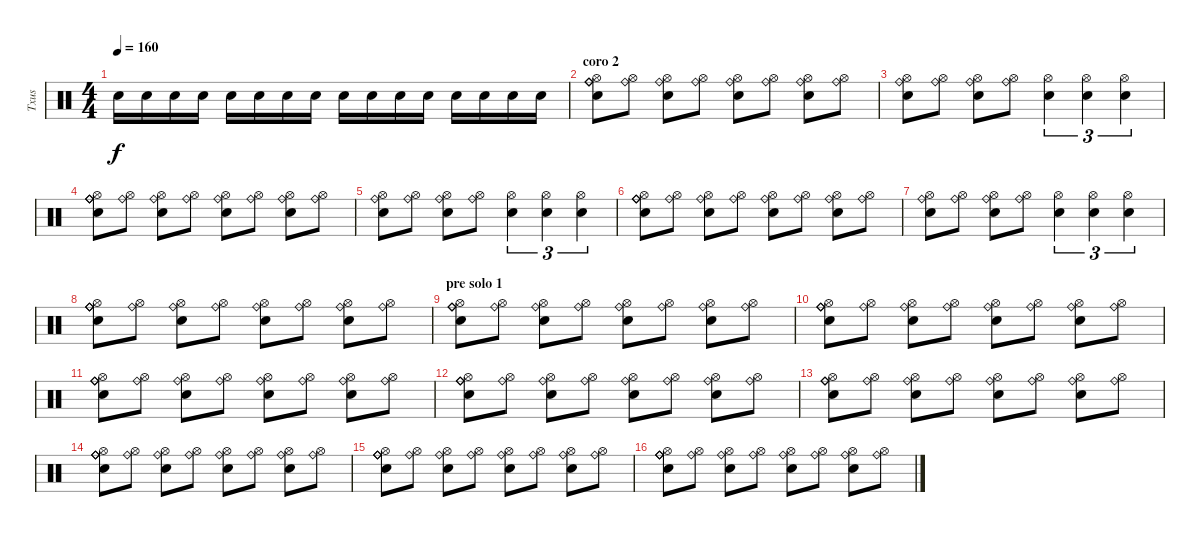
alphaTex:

\track ("Txus" "Txus") {instrument percussion}
\staff {score}
\articulation defaults
\ts (4 4)
\tempo 160
\clef neutral
\ks c "Snare (hit) 2".16{dy f} "Snare (hit) 2".16 "Snare (hit) 2".16 "Snare (hit) 2".16 "Snare (hit) 2".16 "Snare (hit) 2".16 "Snare (hit) 2".16 "Snare (hit) 2".16 "Snare (hit) 2".16 "Snare (hit) 2".16 "Snare (hit) 2".16 "Snare (hit) 2".16 "Snare (hit) 2".16 "Snare (hit) 2".16 "Snare (hit) 2".16 "Snare (hit) 2".16
|
\section ("" "coro 2")
("Snare (hit) 2" "Hi-Hat (open)" "Ride (bell)" "Ride (bell)" "Ride (bell)").8 ("Hi-Hat (open)" "Ride (bell)").8 ("Snare (hit) 2" "Hi-Hat (open)" "Ride (bell)").8 ("Hi-Hat (open)" "Ride (bell)").8 ("Snare (hit) 2" "Hi-Hat (open)" "Ride (bell)").8 ("Hi-Hat (open)" "Ride (bell)").8 ("Snare (hit) 2" "Hi-Hat (open)" "Ride (bell)").8 ("Hi-Hat (open)" "Ride (bell)").8 |
("Snare (hit) 2" "Ride (bell)" "Hi-Hat (open)").8 ("Ride (bell)" "Hi-Hat (open)").8 ("Snare (hit) 2" "Ride (bell)" "Hi-Hat (open)").8 ("Ride (bell)" "Hi-Hat (open)").8 ("Snare (hit) 2" "Hi-Hat (open)").4{tu (3 2)} ("Snare (hit) 2" "Hi-Hat (open)").4{tu (3 2)} ("Snare (hit) 2" "Hi-Hat (open)").4{tu (3 2)} |
("Snare (hit) 2" "Hi-Hat (open)" "Ride (bell)" "Ride (bell)" "Ride (bell)").8 ("Hi-Hat (open)" "Ride (bell)").8 ("Snare (hit) 2" "Hi-Hat (open)" "Ride (bell)").8 ("Hi-Hat (open)" "Ride (bell)").8 ("Snare (hit) 2" "Hi-Hat (open)" "Ride (bell)").8 ("Hi-Hat (open)" "Ride (bell)").8 ("Snare (hit) 2" "Hi-Hat (open)" "Ride (bell)").8 ("Hi-Hat (open)" "Ride (bell)").8 |
("Snare (hit) 2" "Ride (bell)" "Hi-Hat (open)").8 ("Ride (bell)" "Hi-Hat (open)").8 ("Snare (hit) 2" "Ride (bell)" "Hi-Hat (open)").8 ("Ride (bell)" "Hi-Hat (open)").8 ("Snare (hit) 2" "Hi-Hat (open)").4{tu (3 2)} ("Snare (hit) 2" "Hi-Hat (open)").4{tu (3 2)} ("Snare (hit) 2" "Hi-Hat (open)").4{tu (3 2)} |
("Snare (hit) 2" "Hi-Hat (open)" "Ride (bell)" "Ride (bell)" "Ride (bell)").8 ("Hi-Hat (open)" "Ride (bell)").8 ("Snare (hit) 2" "Hi-Hat (open)" "Ride (bell)").8 ("Hi-Hat (open)" "Ride (bell)").8 ("Snare (hit) 2" "Hi-Hat (open)" "Ride (bell)").8 ("Hi-Hat (open)" "Ride (bell)").8 ("Snare (hit) 2" "Hi-Hat (open)" "Ride (bell)").8 ("Hi-Hat (open)" "Ride (bell)").8 |
("Snare (hit) 2" "Ride (bell)" "Hi-Hat (open)").8 ("Ride (bell)" "Hi-Hat (open)").8 ("Snare (hit) 2" "Ride (bell)" "Hi-Hat (open)").8 ("Ride (bell)" "Hi-Hat (open)").8 ("Snare (hit) 2" "Hi-Hat (open)").4{tu (3 2)} ("Snare (hit) 2" "Hi-Hat (open)").4{tu (3 2)} ("Snare (hit) 2" "Hi-Hat (open)").4{tu (3 2)} |
("Snare (hit) 2" "Hi-Hat (open)" "Ride (bell)" "Ride (bell)" "Ride (bell)").8 ("Hi-Hat (open)" "Ride (bell)").8 ("Snare (hit) 2" "Hi-Hat (open)" "Ride (bell)").8 ("Hi-Hat (open)" "Ride (bell)").8 ("Snare (hit) 2" "Hi-Hat (open)" "Ride (bell)").8 ("Hi-Hat (open)" "Ride (bell)").8 ("Snare (hit) 2" "Hi-Hat (open)" "Ride (bell)").8 ("Hi-Hat (open)" "Ride (bell)").8 |
\section ("" "pre solo 1")
("Snare (hit) 2" "Hi-Hat (open)" "Ride (bell)" "Ride (bell)" "Ride (bell)").8 ("Hi-Hat (open)" "Ride (bell)").8 ("Snare (hit) 2" "Hi-Hat (open)" "Ride (bell)").8 ("Hi-Hat (open)" "Ride (bell)").8 ("Snare (hit) 2" "Hi-Hat (open)" "Ride (bell)").8 ("Hi-Hat (open)" "Ride (bell)").8 ("Snare (hit) 2" "Hi-Hat (open)" "Ride (bell)").8 ("Hi-Hat (open)" "Ride (bell)").8 |
("Snare (hit) 2" "Hi-Hat (open)" "Ride (bell)" "Ride (bell)" "Ride (bell)").8 ("Hi-Hat (open)" "Ride (bell)").8 ("Snare (hit) 2" "Hi-Hat (open)" "Ride (bell)").8 ("Hi-Hat (open)" "Ride (bell)").8 ("Snare (hit) 2" "Hi-Hat (open)" "Ride (bell)").8 ("Hi-Hat (open)" "Ride (bell)").8 ("Snare (hit) 2" "Hi-Hat (open)" "Ride (bell)").8 ("Hi-Hat (open)" "Ride (bell)").8 |
("Snare (hit) 2" "Hi-Hat (open)" "Ride (bell)" "Ride (bell)" "Ride (bell)").8 ("Hi-Hat (open)" "Ride (bell)").8 ("Snare (hit) 2" "Hi-Hat (open)" "Ride (bell)").8 ("Hi-Hat (open)" "Ride (bell)").8 ("Snare (hit) 2" "Hi-Hat (open)" "Ride (bell)").8 ("Hi-Hat (open)" "Ride (bell)").8 ("Snare (hit) 2" "Hi-Hat (open)" "Ride (bell)").8 ("Hi-Hat (open)" "Ride (bell)").8 |
("Snare (hit) 2" "Hi-Hat (open)" "Ride (bell)" "Ride (bell)" "Ride (bell)").8 ("Hi-Hat (open)" "Ride (bell)").8 ("Snare (hit) 2" "Hi-Hat (open)" "Ride (bell)").8 ("Hi-Hat (open)" "Ride (bell)").8 ("Snare (hit) 2" "Hi-Hat (open)" "Ride (bell)").8 ("Hi-Hat (open)" "Ride (bell)").8 ("Snare (hit) 2" "Hi-Hat (open)" "Ride (bell)").8 ("Hi-Hat (open)" "Ride (bell)").8 |
("Snare (hit) 2" "Hi-Hat (open)" "Ride (bell)" "Ride (bell)" "Ride (bell)").8 ("Hi-Hat (open)" "Ride (bell)").8 ("Snare (hit) 2" "Hi-Hat (open)" "Ride (bell)").8 ("Hi-Hat (open)" "Ride (bell)").8 ("Snare (hit) 2" "Hi-Hat (open)" "Ride (bell)").8 ("Hi-Hat (open)" "Ride (bell)").8 ("Snare (hit) 2" "Hi-Hat (open)" "Ride (bell)").8 ("Hi-Hat (open)" "Ride (bell)").8 |
("Snare (hit) 2" "Hi-Hat (open)" "Ride (bell)" "Ride (bell)" "Ride (bell)").8 ("Hi-Hat (open)" "Ride (bell)").8 ("Snare (hit) 2" "Hi-Hat (open)" "Ride (bell)").8 ("Hi-Hat (open)" "Ride (bell)").8 ("Snare (hit) 2" "Hi-Hat (open)" "Ride (bell)").8 ("Hi-Hat (open)" "Ride (bell)").8 ("Snare (hit) 2" "Hi-Hat (open)" "Ride (bell)").8 ("Hi-Hat (open)" "Ride (bell)").8 |
("Snare (hit) 2" "Hi-Hat (open)" "Ride (bell)" "Ride (bell)" "Ride (bell)").8 ("Hi-Hat (open)" "Ride (bell)").8 ("Snare (hit) 2" "Hi-Hat (open)" "Ride (bell)").8 ("Hi-Hat (open)" "Ride (bell)").8 ("Snare (hit) 2" "Hi-Hat (open)" "Ride (bell)").8 ("Hi-Hat (open)" "Ride (bell)").8 ("Snare (hit) 2" "Hi-Hat (open)" "Ride (bell)").8 ("Hi-Hat (open)" "Ride (bell)").8 |
("Snare (hit) 2" "Hi-Hat (open)" "Ride (bell)" "Ride (bell)" "Ride (bell)").8 ("Hi-Hat (open)" "Ride (bell)").8 ("Snare (hit) 2" "Hi-Hat (open)" "Ride (bell)").8 ("Hi-Hat (open)" "Ride (bell)").8 ("Snare (hit) 2" "Hi-Hat (open)" "Ride (bell)").8 ("Hi-Hat (open)" "Ride (bell)").8 ("Snare (hit) 2" "Hi-Hat (open)" "Ride (bell)").8 ("Hi-Hat (open)" "Ride (bell)").8
